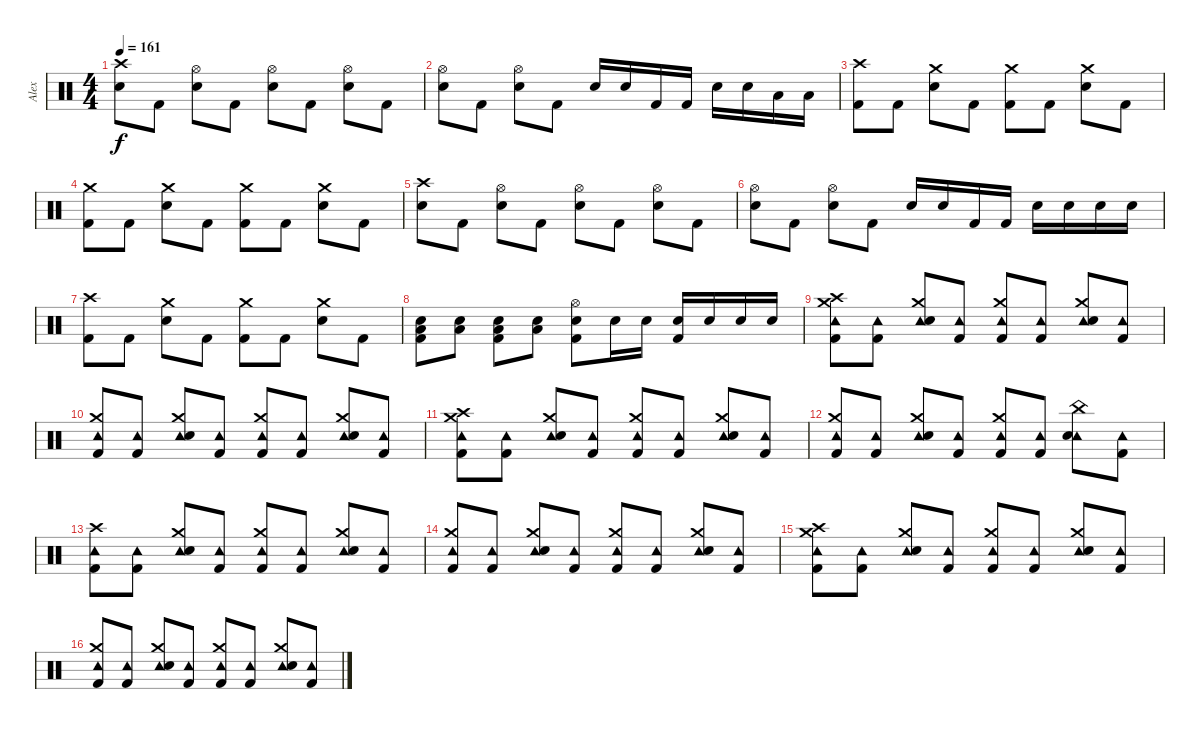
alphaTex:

\track ("Alex" "Alex") {instrument percussion}
\staff
\articulation defaults
\ts (4 4)
\tempo 161
\clef neutral
\ks c
("Crash high (hit)" "Electric Snare (hit)").8{dy f} "Kick (hit) 2".8 ("Hi-Hat (open)" "Electric Snare (hit)").8 "Kick (hit) 2".8 ("Hi-Hat (open)" "Electric Snare (hit)").8 "Kick (hit) 2".8 ("Hi-Hat (open)" "Electric Snare (hit)").8 "Kick (hit) 2".8 |
("Hi-Hat (open)" "Electric Snare (hit)").8 "Kick (hit) 2".8 ("Hi-Hat (open)" "Electric Snare (hit)").8 "Kick (hit) 2".8 "Electric Snare (hit)".16 "Electric Snare (hit)".16 "Kick (hit) 2".16 "Kick (hit) 2".16 "Electric Snare (hit)".16 "Electric Snare (hit)".16 "Low Floor Tom (hit)".16 "Low Floor Tom (hit)".16 |
("Crash high (hit)" "Kick (hit) 2").8 "Kick (hit) 2".8 ("Crash medium (hit)" "Electric Snare (hit)").8 "Kick (hit) 2".8 ("Crash medium (hit)" "Kick (hit) 2").8 "Kick (hit) 2".8 ("Crash medium (hit)" "Electric Snare (hit)").8 "Kick (hit) 2".8 |
("Crash medium (hit)" "Kick (hit) 2").8 "Kick (hit) 2".8 ("Crash medium (hit)" "Electric Snare (hit)").8 "Kick (hit) 2".8 ("Crash medium (hit)" "Kick (hit) 2").8 "Kick (hit) 2".8 ("Crash medium (hit)" "Electric Snare (hit)").8 "Kick (hit) 2".8 |
("Crash high (hit)" "Electric Snare (hit)").8 "Kick (hit) 2".8 ("Hi-Hat (open)" "Electric Snare (hit)").8 "Kick (hit) 2".8 ("Hi-Hat (open)" "Electric Snare (hit)").8 "Kick (hit) 2".8 ("Hi-Hat (open)" "Electric Snare (hit)").8 "Kick (hit) 2".8 |
("Hi-Hat (open)" "Electric Snare (hit)").8 "Kick (hit) 2".8 ("Hi-Hat (open)" "Electric Snare (hit)").8 "Kick (hit) 2".8 "Electric Snare (hit)".16 "Electric Snare (hit)".16 "Kick (hit) 2".16 "Kick (hit) 2".16 "Electric Snare (hit)".16 "Electric Snare (hit)".16 "Electric Snare (hit)".16 "Electric Snare (hit)".16 |
("Crash high (hit)" "Kick (hit) 2").8 "Kick (hit) 2".8 ("Crash medium (hit)" "Electric Snare (hit)").8 "Kick (hit) 2".8 ("Crash medium (hit)" "Kick (hit) 2").8 "Kick (hit) 2".8 ("Crash medium (hit)" "Electric Snare (hit)").8 "Kick (hit) 2".8 |
("Electric Snare (hit)" "Low Floor Tom (hit)" "Kick (hit) 2").8 ("Electric Snare (hit)" "Low Floor Tom (hit)").8 ("Electric Snare (hit)" "Low Floor Tom (hit)" "Kick (hit) 2").8 ("Electric Snare (hit)" "Low Floor Tom (hit)").8 ("Hi-Hat (open)" "Electric Snare (hit)" "Kick (hit) 2").8 "Electric Snare (hit)".16 "Electric Snare (hit)".16 ("Electric Snare (hit)" "Kick (hit) 2").16 "Electric Snare (hit)".16 "Electric Snare (hit)".16 "Electric Snare (hit)".16 |
("Crash medium (hit)" "Crash high (hit)" "Tambourine (hit)" "Kick (hit) 2").8 ("Tambourine (hit)" "Kick (hit) 2").8 ("Crash medium (hit)" "Tambourine (hit)" "Electric Snare (hit)").8 ("Tambourine (hit)" "Kick (hit) 2").8 ("Crash medium (hit)" "Tambourine (hit)" "Kick (hit) 2").8 ("Tambourine (hit)" "Kick (hit) 2").8 ("Crash medium (hit)" "Tambourine (hit)" "Electric Snare (hit)").8 ("Tambourine (hit)" "Kick (hit) 2").8 |
("Crash medium (hit)" "Tambourine (hit)" "Kick (hit) 2").8 ("Tambourine (hit)" "Kick (hit) 2").8 ("Crash medium (hit)" "Tambourine (hit)" "Electric Snare (hit)").8 ("Tambourine (hit)" "Kick (hit) 2").8 ("Crash medium (hit)" "Tambourine (hit)" "Kick (hit) 2").8 ("Tambourine (hit)" "Kick (hit) 2").8 ("Crash medium (hit)" "Tambourine (hit)" "Electric Snare (hit)").8 ("Tambourine (hit)" "Kick (hit) 2").8 |
("Crash medium (hit)" "Crash high (hit)" "Tambourine (hit)" "Kick (hit) 2").8 ("Tambourine (hit)" "Kick (hit) 2").8 ("Crash medium (hit)" "Tambourine (hit)" "Electric Snare (hit)").8 ("Tambourine (hit)" "Kick (hit) 2").8 ("Crash medium (hit)" "Tambourine (hit)" "Kick (hit) 2").8 ("Tambourine (hit)" "Kick (hit) 2").8 ("Crash medium (hit)" "Tambourine (hit)" "Electric Snare (hit)").8 ("Tambourine (hit)" "Kick (hit) 2").8 |
("Crash medium (hit)" "Tambourine (hit)" "Kick (hit) 2").8 ("Tambourine (hit)" "Kick (hit) 2").8 ("Crash medium (hit)" "Tambourine (hit)" "Electric Snare (hit)").8 ("Tambourine (hit)" "Kick (hit) 2").8 ("Crash medium (hit)" "Tambourine (hit)" "Kick (hit) 2").8 ("Tambourine (hit)" "Kick (hit) 2").8 ("China (hit)" "Tambourine (hit)" "Electric Snare (hit)").8 ("Tambourine (hit)" "Kick (hit) 2").8 |
("Crash high (hit)" "Tambourine (hit)" "Kick (hit) 2").8 ("Tambourine (hit)" "Kick (hit) 2").8 ("Crash medium (hit)" "Tambourine (hit)" "Electric Snare (hit)").8 ("Tambourine (hit)" "Kick (hit) 2").8 ("Crash medium (hit)" "Tambourine (hit)" "Kick (hit) 2").8 ("Tambourine (hit)" "Kick (hit) 2").8 ("Crash medium (hit)" "Tambourine (hit)" "Electric Snare (hit)").8 ("Tambourine (hit)" "Kick (hit) 2").8 |
("Crash medium (hit)" "Tambourine (hit)" "Kick (hit) 2").8 ("Tambourine (hit)" "Kick (hit) 2").8 ("Crash medium (hit)" "Tambourine (hit)" "Electric Snare (hit)").8 ("Tambourine (hit)" "Kick (hit) 2").8 ("Crash medium (hit)" "Tambourine (hit)" "Kick (hit) 2").8 ("Tambourine (hit)" "Kick (hit) 2").8 ("Crash medium (hit)" "Tambourine (hit)" "Electric Snare (hit)").8 ("Tambourine (hit)" "Kick (hit) 2").8 |
("Crash medium (hit)" "Crash high (hit)" "Tambourine (hit)" "Kick (hit) 2").8 ("Tambourine (hit)" "Kick (hit) 2").8 ("Crash medium (hit)" "Tambourine (hit)" "Electric Snare (hit)").8 ("Tambourine (hit)" "Kick (hit) 2").8 ("Crash medium (hit)" "Tambourine (hit)" "Kick (hit) 2").8 ("Tambourine (hit)" "Kick (hit) 2").8 ("Crash medium (hit)" "Tambourine (hit)" "Electric Snare (hit)").8 ("Tambourine (hit)" "Kick (hit) 2").8 |
("Crash medium (hit)" "Tambourine (hit)" "Kick (hit) 2").8 ("Tambourine (hit)" "Kick (hit) 2").8 ("Crash medium (hit)" "Tambourine (hit)" "Electric Snare (hit)").8 ("Tambourine (hit)" "Kick (hit) 2").8 ("Crash medium (hit)" "Tambourine (hit)" "Kick (hit) 2").8 ("Tambourine (hit)" "Kick (hit) 2").8 ("Crash medium (hit)" "Tambourine (hit)" "Electric Snare (hit)").8 ("Tambourine (hit)" "Kick (hit) 2").8
